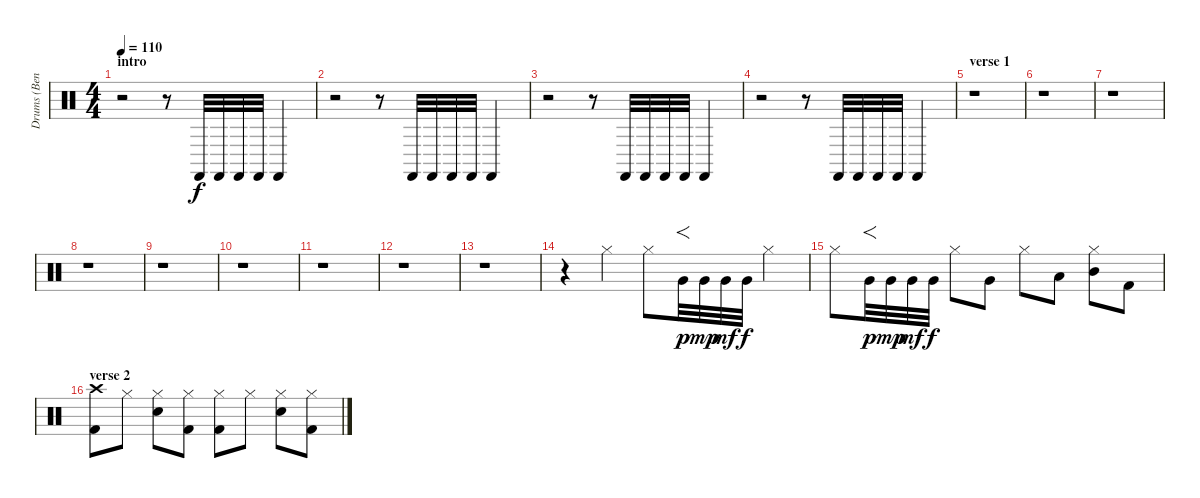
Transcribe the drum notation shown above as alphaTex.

\track ("Drums (Bengerg)" "Drums (Ben") {instrument percussion}
\staff {score}
\articulation defaults
\ts (4 4)
\section ("" "intro")
\tempo 110
\clef neutral
\ks c
r.2{dy f} r.8 "Castanets (hit)".32 "Castanets (hit)".32 "Castanets (hit)".32 "Castanets (hit)".32 "Castanets (hit)".4 |
r.2 r.8 "Castanets (hit)".32 "Castanets (hit)".32 "Castanets (hit)".32 "Castanets (hit)".32 "Castanets (hit)".4 |
r.2 r.8 "Castanets (hit)".32 "Castanets (hit)".32 "Castanets (hit)".32 "Castanets (hit)".32 "Castanets (hit)".4 |
r.2 r.8 "Castanets (hit)".32 "Castanets (hit)".32 "Castanets (hit)".32 "Castanets (hit)".32 "Castanets (hit)".4 |
\section ("" "verse 1")
r.1 |
r.1 |
r.1 |
r.1 |
r.1 |
r.1 |
r.1 |
r.1 |
r.1 |
r.4 "Hi-Hat (closed)".4 "Hi-Hat (closed)".8 "Very Low Tom (hit)".32{f dy p} "Very Low Tom (hit)".32{dy mp} "Very Low Tom (hit)".32{dy mf} "Very Low Tom (hit)".32{dy f} "Hi-Hat (closed)".4 |
"Hi-Hat (closed)".8 "Very Low Tom (hit)".32{f dy p} "Very Low Tom (hit)".32{dy mp} "Very Low Tom (hit)".32{dy mf} "Very Low Tom (hit)".32{dy f} "Hi-Hat (closed)".8 "Very Low Tom (hit)".8 "Hi-Hat (closed)".8 "Low Tom (hit)".8 ("Hi-Hat (closed)" "Mid Tom (hit)").8 "Kick (hit) 2".8 |
\section ("" "verse 2")
("Crash high (hit)" "Kick (hit) 2").8 "Hi-Hat (closed)".8 ("Hi-Hat (closed)" "Electric Snare (hit)").8 ("Hi-Hat (closed)" "Kick (hit) 2").8 ("Hi-Hat (closed)" "Kick (hit) 2").8 "Hi-Hat (closed)".8 ("Hi-Hat (closed)" "Electric Snare (hit)").8 ("Hi-Hat (closed)" "Kick (hit) 2").8
